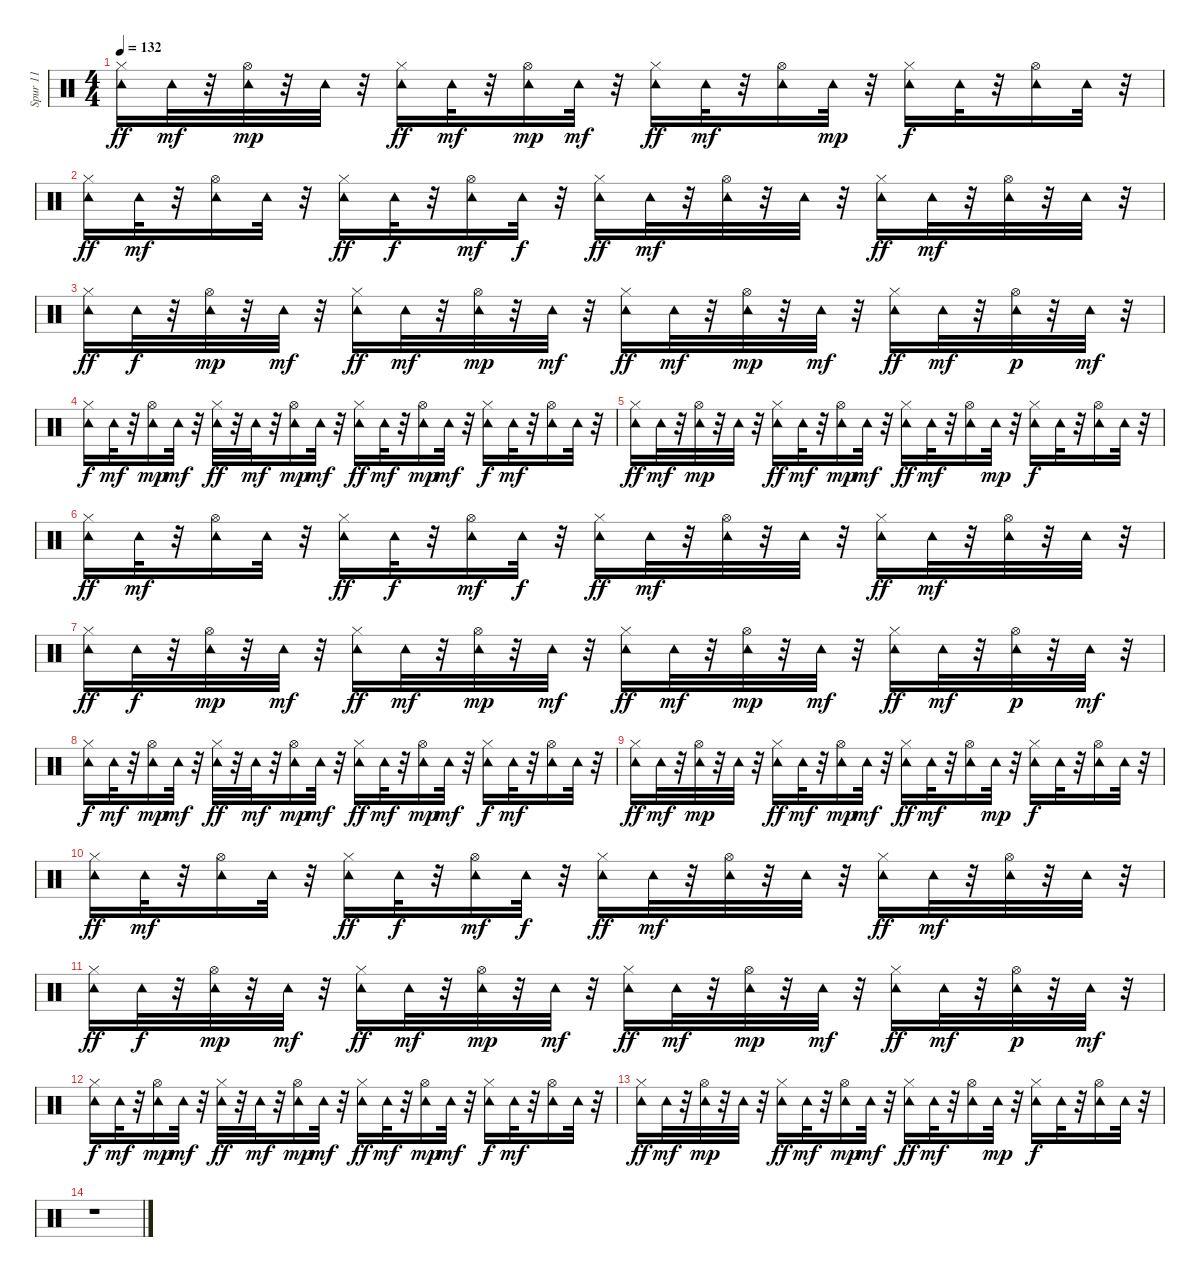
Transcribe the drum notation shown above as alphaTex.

\track ("Spur 11" "Spur 11") {instrument percussion}
\staff {score}
\articulation defaults
\ts (4 4)
\tempo 132
\clef neutral
\ks c
("Tambourine (hit)" "Hi-Hat (closed)").16{dy ff} "Tambourine (hit)".32{dy mf} r.32 ("Tambourine (hit)" "Hi-Hat (open)").32{dy mp} r.32 "Tambourine (hit)".32 r.32 ("Tambourine (hit)" "Hi-Hat (closed)").16{dy ff} "Tambourine (hit)".32{dy mf} r.32 ("Tambourine (hit)" "Hi-Hat (open)").16{dy mp} "Tambourine (hit)".32{dy mf} r.32 ("Tambourine (hit)" "Hi-Hat (closed)").16{dy ff} "Tambourine (hit)".32{dy mf} r.32 ("Tambourine (hit)" "Hi-Hat (open)").16 "Tambourine (hit)".32{dy mp} r.32 ("Tambourine (hit)" "Hi-Hat (closed)").16{dy f} "Tambourine (hit)".32 r.32 ("Tambourine (hit)" "Hi-Hat (open)").16 "Tambourine (hit)".32 r.32 |
("Tambourine (hit)" "Hi-Hat (closed)").16{dy ff} "Tambourine (hit)".32{dy mf} r.32 ("Tambourine (hit)" "Hi-Hat (open)").16 "Tambourine (hit)".32 r.32 ("Tambourine (hit)" "Hi-Hat (closed)").16{dy ff} "Tambourine (hit)".32{dy f} r.32 ("Tambourine (hit)" "Hi-Hat (open)").16{dy mf} "Tambourine (hit)".32{dy f} r.32 ("Tambourine (hit)" "Hi-Hat (closed)").16{dy ff} "Tambourine (hit)".32{dy mf} r.32 ("Tambourine (hit)" "Hi-Hat (open)").32 r.32 "Tambourine (hit)".32 r.32 ("Tambourine (hit)" "Hi-Hat (closed)").16{dy ff} "Tambourine (hit)".32{dy mf} r.32 ("Tambourine (hit)" "Hi-Hat (open)").32 r.32 "Tambourine (hit)".32 r.32 |
("Tambourine (hit)" "Hi-Hat (closed)").16{dy ff} "Tambourine (hit)".32{dy f} r.32 ("Tambourine (hit)" "Hi-Hat (open)").32{dy mp} r.32 "Tambourine (hit)".32{dy mf} r.32 ("Tambourine (hit)" "Hi-Hat (closed)").16{dy ff} "Tambourine (hit)".32{dy mf} r.32 ("Tambourine (hit)" "Hi-Hat (open)").32{dy mp} r.32 "Tambourine (hit)".32{dy mf} r.32 ("Tambourine (hit)" "Hi-Hat (closed)").16{dy ff} "Tambourine (hit)".32{dy mf} r.32 ("Tambourine (hit)" "Hi-Hat (open)").32{dy mp} r.32 "Tambourine (hit)".32{dy mf} r.32 ("Tambourine (hit)" "Hi-Hat (closed)").16{dy ff} "Tambourine (hit)".32{dy mf} r.32 ("Tambourine (hit)" "Hi-Hat (open)").32{dy p} r.32 "Tambourine (hit)".32{dy mf} r.32 |
("Tambourine (hit)" "Hi-Hat (closed)").16{dy f} "Tambourine (hit)".32{dy mf} r.32 ("Tambourine (hit)" "Hi-Hat (open)").16{dy mp} "Tambourine (hit)".32{dy mf} r.32 ("Tambourine (hit)" "Hi-Hat (closed)").32{dy ff} r.32 "Tambourine (hit)".32{dy mf} r.32 ("Tambourine (hit)" "Hi-Hat (open)").16{dy mp} "Tambourine (hit)".32{dy mf} r.32 ("Tambourine (hit)" "Hi-Hat (closed)").16{dy ff} "Tambourine (hit)".32{dy mf} r.32 ("Tambourine (hit)" "Hi-Hat (open)").16{dy mp} "Tambourine (hit)".32{dy mf} r.32 ("Tambourine (hit)" "Hi-Hat (closed)").16{dy f} "Tambourine (hit)".32{dy mf} r.32 ("Tambourine (hit)" "Hi-Hat (open)").16 "Tambourine (hit)".32 r.32 |
("Tambourine (hit)" "Hi-Hat (closed)").16{dy ff} "Tambourine (hit)".32{dy mf} r.32 ("Tambourine (hit)" "Hi-Hat (open)").32{dy mp} r.32 "Tambourine (hit)".32 r.32 ("Tambourine (hit)" "Hi-Hat (closed)").16{dy ff} "Tambourine (hit)".32{dy mf} r.32 ("Tambourine (hit)" "Hi-Hat (open)").16{dy mp} "Tambourine (hit)".32{dy mf} r.32 ("Tambourine (hit)" "Hi-Hat (closed)").16{dy ff} "Tambourine (hit)".32{dy mf} r.32 ("Tambourine (hit)" "Hi-Hat (open)").16 "Tambourine (hit)".32{dy mp} r.32 ("Tambourine (hit)" "Hi-Hat (closed)").16{dy f} "Tambourine (hit)".32 r.32 ("Tambourine (hit)" "Hi-Hat (open)").16 "Tambourine (hit)".32 r.32 |
("Tambourine (hit)" "Hi-Hat (closed)").16{dy ff} "Tambourine (hit)".32{dy mf} r.32 ("Tambourine (hit)" "Hi-Hat (open)").16 "Tambourine (hit)".32 r.32 ("Tambourine (hit)" "Hi-Hat (closed)").16{dy ff} "Tambourine (hit)".32{dy f} r.32 ("Tambourine (hit)" "Hi-Hat (open)").16{dy mf} "Tambourine (hit)".32{dy f} r.32 ("Tambourine (hit)" "Hi-Hat (closed)").16{dy ff} "Tambourine (hit)".32{dy mf} r.32 ("Tambourine (hit)" "Hi-Hat (open)").32 r.32 "Tambourine (hit)".32 r.32 ("Tambourine (hit)" "Hi-Hat (closed)").16{dy ff} "Tambourine (hit)".32{dy mf} r.32 ("Tambourine (hit)" "Hi-Hat (open)").32 r.32 "Tambourine (hit)".32 r.32 |
("Tambourine (hit)" "Hi-Hat (closed)").16{dy ff} "Tambourine (hit)".32{dy f} r.32 ("Tambourine (hit)" "Hi-Hat (open)").32{dy mp} r.32 "Tambourine (hit)".32{dy mf} r.32 ("Tambourine (hit)" "Hi-Hat (closed)").16{dy ff} "Tambourine (hit)".32{dy mf} r.32 ("Tambourine (hit)" "Hi-Hat (open)").32{dy mp} r.32 "Tambourine (hit)".32{dy mf} r.32 ("Tambourine (hit)" "Hi-Hat (closed)").16{dy ff} "Tambourine (hit)".32{dy mf} r.32 ("Tambourine (hit)" "Hi-Hat (open)").32{dy mp} r.32 "Tambourine (hit)".32{dy mf} r.32 ("Tambourine (hit)" "Hi-Hat (closed)").16{dy ff} "Tambourine (hit)".32{dy mf} r.32 ("Tambourine (hit)" "Hi-Hat (open)").32{dy p} r.32 "Tambourine (hit)".32{dy mf} r.32 |
("Tambourine (hit)" "Hi-Hat (closed)").16{dy f} "Tambourine (hit)".32{dy mf} r.32 ("Tambourine (hit)" "Hi-Hat (open)").16{dy mp} "Tambourine (hit)".32{dy mf} r.32 ("Tambourine (hit)" "Hi-Hat (closed)").32{dy ff} r.32 "Tambourine (hit)".32{dy mf} r.32 ("Tambourine (hit)" "Hi-Hat (open)").16{dy mp} "Tambourine (hit)".32{dy mf} r.32 ("Tambourine (hit)" "Hi-Hat (closed)").16{dy ff} "Tambourine (hit)".32{dy mf} r.32 ("Tambourine (hit)" "Hi-Hat (open)").16{dy mp} "Tambourine (hit)".32{dy mf} r.32 ("Tambourine (hit)" "Hi-Hat (closed)").16{dy f} "Tambourine (hit)".32{dy mf} r.32 ("Tambourine (hit)" "Hi-Hat (open)").16 "Tambourine (hit)".32 r.32 |
("Tambourine (hit)" "Hi-Hat (closed)").16{dy ff} "Tambourine (hit)".32{dy mf} r.32 ("Tambourine (hit)" "Hi-Hat (open)").32{dy mp} r.32 "Tambourine (hit)".32 r.32 ("Tambourine (hit)" "Hi-Hat (closed)").16{dy ff} "Tambourine (hit)".32{dy mf} r.32 ("Tambourine (hit)" "Hi-Hat (open)").16{dy mp} "Tambourine (hit)".32{dy mf} r.32 ("Tambourine (hit)" "Hi-Hat (closed)").16{dy ff} "Tambourine (hit)".32{dy mf} r.32 ("Tambourine (hit)" "Hi-Hat (open)").16 "Tambourine (hit)".32{dy mp} r.32 ("Tambourine (hit)" "Hi-Hat (closed)").16{dy f} "Tambourine (hit)".32 r.32 ("Tambourine (hit)" "Hi-Hat (open)").16 "Tambourine (hit)".32 r.32 |
("Tambourine (hit)" "Hi-Hat (closed)").16{dy ff} "Tambourine (hit)".32{dy mf} r.32 ("Tambourine (hit)" "Hi-Hat (open)").16 "Tambourine (hit)".32 r.32 ("Tambourine (hit)" "Hi-Hat (closed)").16{dy ff} "Tambourine (hit)".32{dy f} r.32 ("Tambourine (hit)" "Hi-Hat (open)").16{dy mf} "Tambourine (hit)".32{dy f} r.32 ("Tambourine (hit)" "Hi-Hat (closed)").16{dy ff} "Tambourine (hit)".32{dy mf} r.32 ("Tambourine (hit)" "Hi-Hat (open)").32 r.32 "Tambourine (hit)".32 r.32 ("Tambourine (hit)" "Hi-Hat (closed)").16{dy ff} "Tambourine (hit)".32{dy mf} r.32 ("Tambourine (hit)" "Hi-Hat (open)").32 r.32 "Tambourine (hit)".32 r.32 |
("Tambourine (hit)" "Hi-Hat (closed)").16{dy ff} "Tambourine (hit)".32{dy f} r.32 ("Tambourine (hit)" "Hi-Hat (open)").32{dy mp} r.32 "Tambourine (hit)".32{dy mf} r.32 ("Tambourine (hit)" "Hi-Hat (closed)").16{dy ff} "Tambourine (hit)".32{dy mf} r.32 ("Tambourine (hit)" "Hi-Hat (open)").32{dy mp} r.32 "Tambourine (hit)".32{dy mf} r.32 ("Tambourine (hit)" "Hi-Hat (closed)").16{dy ff} "Tambourine (hit)".32{dy mf} r.32 ("Tambourine (hit)" "Hi-Hat (open)").32{dy mp} r.32 "Tambourine (hit)".32{dy mf} r.32 ("Tambourine (hit)" "Hi-Hat (closed)").16{dy ff} "Tambourine (hit)".32{dy mf} r.32 ("Tambourine (hit)" "Hi-Hat (open)").32{dy p} r.32 "Tambourine (hit)".32{dy mf} r.32 |
("Tambourine (hit)" "Hi-Hat (closed)").16{dy f} "Tambourine (hit)".32{dy mf} r.32 ("Tambourine (hit)" "Hi-Hat (open)").16{dy mp} "Tambourine (hit)".32{dy mf} r.32 ("Tambourine (hit)" "Hi-Hat (closed)").32{dy ff} r.32 "Tambourine (hit)".32{dy mf} r.32 ("Tambourine (hit)" "Hi-Hat (open)").16{dy mp} "Tambourine (hit)".32{dy mf} r.32 ("Tambourine (hit)" "Hi-Hat (closed)").16{dy ff} "Tambourine (hit)".32{dy mf} r.32 ("Tambourine (hit)" "Hi-Hat (open)").16{dy mp} "Tambourine (hit)".32{dy mf} r.32 ("Tambourine (hit)" "Hi-Hat (closed)").16{dy f} "Tambourine (hit)".32{dy mf} r.32 ("Tambourine (hit)" "Hi-Hat (open)").16 "Tambourine (hit)".32 r.32 |
("Tambourine (hit)" "Hi-Hat (closed)").16{dy ff} "Tambourine (hit)".32{dy mf} r.32 ("Tambourine (hit)" "Hi-Hat (open)").32{dy mp} r.32 "Tambourine (hit)".32 r.32 ("Tambourine (hit)" "Hi-Hat (closed)").16{dy ff} "Tambourine (hit)".32{dy mf} r.32 ("Tambourine (hit)" "Hi-Hat (open)").16{dy mp} "Tambourine (hit)".32{dy mf} r.32 ("Tambourine (hit)" "Hi-Hat (closed)").16{dy ff} "Tambourine (hit)".32{dy mf} r.32 ("Tambourine (hit)" "Hi-Hat (open)").16 "Tambourine (hit)".32{dy mp} r.32 ("Tambourine (hit)" "Hi-Hat (closed)").16{dy f} "Tambourine (hit)".32 r.32 ("Tambourine (hit)" "Hi-Hat (open)").16 "Tambourine (hit)".32 r.32 |
r.1
